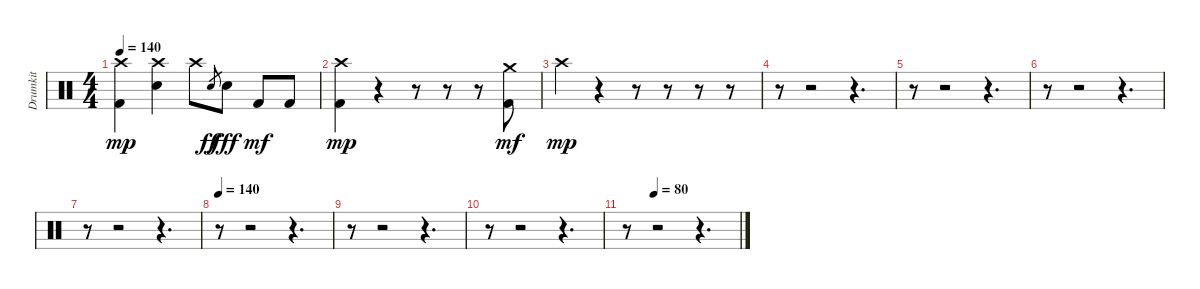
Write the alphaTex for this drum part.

\track ("Drumkit" "Drumkit") {instrument percussion}
\staff {score}
\articulation defaults
\ts (4 4)
\tempo 140
\clef neutral
\ks c
("Crash high (hit)" "Kick (hit) 2").4{dy mp} ("Crash high (hit)" "Snare (hit) 2").4 "Crash high (hit)".8 "Snare (hit)".8{gr dy ff} "Snare (hit) 2".8{dy fff} "Kick (hit) 2".8{dy mf} "Kick (hit) 2".8 |
("Crash high (hit)" "Kick (hit) 2").4{dy mp} r.4 r.8 r.8 r.8 ("Crash medium (hit)" "Kick (hit) 2").8{dy mf} |
"Crash high (hit)".4{dy mp} r.4 r.8 r.8 r.8 r.8 |
r.8 r.2 r.4{d} |
r.8 r.2 r.4{d} |
r.8 r.2 r.4{d} |
r.8 r.2 r.4{d} |
\tempo 140
r.8 r.2 r.4{d} |
r.8 r.2 r.4{d} |
r.8 r.2 r.4{d} |
\tempo (80 0.25)
r.8 r.2 r.4{d}
